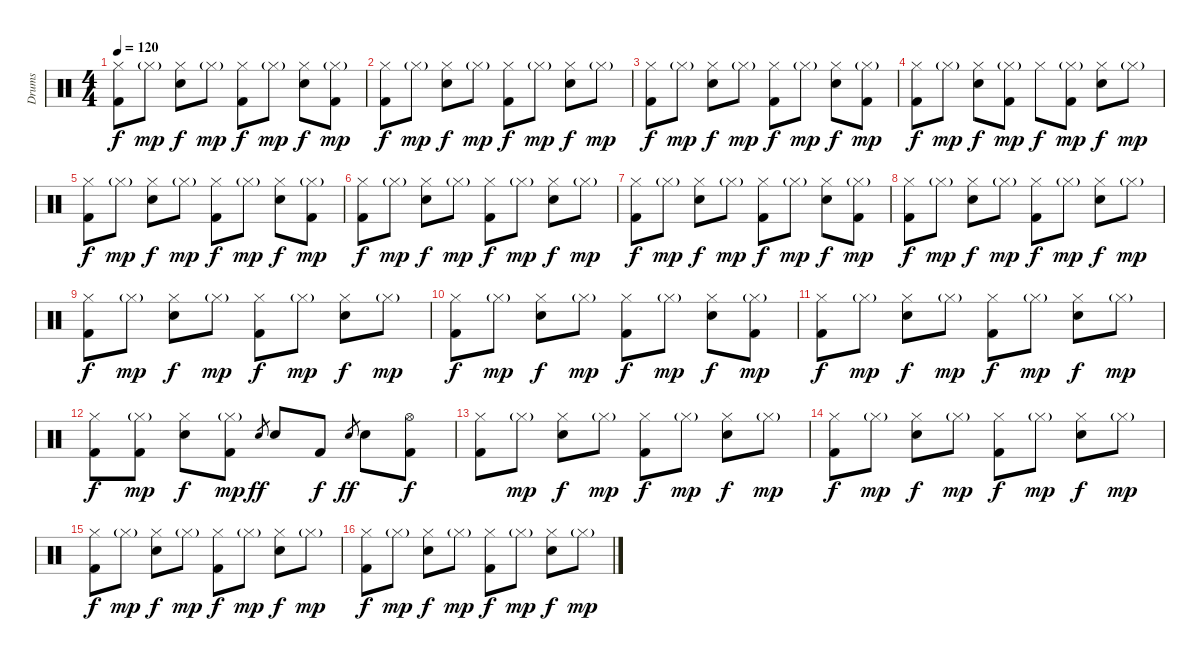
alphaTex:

\track ("Drums" "Drums") {instrument percussion}
\staff {score}
\articulation defaults
\ts (4 4)
\tempo 120
\clef neutral
\ks c
("Hi-Hat (closed)" "Kick (hit) 2").8{dy f} "Hi-Hat (closed)"{g}.8{dy mp} ("Hi-Hat (closed)" "Electric Snare (hit)").8{dy f} "Hi-Hat (closed)"{g}.8{dy mp} ("Hi-Hat (closed)" "Kick (hit) 2").8{dy f} "Hi-Hat (closed)"{g}.8{dy mp} ("Hi-Hat (closed)" "Electric Snare (hit)").8{dy f} ("Hi-Hat (closed)"{g} "Kick (hit) 2").8{dy mp} |
("Hi-Hat (closed)" "Kick (hit) 2").8{dy f} "Hi-Hat (closed)"{g}.8{dy mp} ("Hi-Hat (closed)" "Electric Snare (hit)").8{dy f} "Hi-Hat (closed)"{g}.8{dy mp} ("Hi-Hat (closed)" "Kick (hit) 2").8{dy f} "Hi-Hat (closed)"{g}.8{dy mp} ("Hi-Hat (closed)" "Electric Snare (hit)").8{dy f} "Hi-Hat (closed)"{g}.8{dy mp} |
("Hi-Hat (closed)" "Kick (hit) 2").8{dy f} "Hi-Hat (closed)"{g}.8{dy mp} ("Hi-Hat (closed)" "Electric Snare (hit)").8{dy f} "Hi-Hat (closed)"{g}.8{dy mp} ("Hi-Hat (closed)" "Kick (hit) 2").8{dy f} "Hi-Hat (closed)"{g}.8{dy mp} ("Hi-Hat (closed)" "Electric Snare (hit)").8{dy f} ("Hi-Hat (closed)"{g} "Kick (hit) 2").8{dy mp} |
("Hi-Hat (closed)" "Kick (hit) 2").8{dy f} "Hi-Hat (closed)"{g}.8{dy mp} ("Hi-Hat (closed)" "Electric Snare (hit)").8{dy f} ("Hi-Hat (closed)"{g} "Kick (hit) 2").8{dy mp} "Hi-Hat (closed)".8{dy f} ("Hi-Hat (closed)"{g} "Kick (hit) 2").8{dy mp} ("Hi-Hat (closed)" "Electric Snare (hit)").8{dy f} "Hi-Hat (closed)"{g}.8{dy mp} |
("Hi-Hat (closed)" "Kick (hit) 2").8{dy f} "Hi-Hat (closed)"{g}.8{dy mp} ("Hi-Hat (closed)" "Electric Snare (hit)").8{dy f} "Hi-Hat (closed)"{g}.8{dy mp} ("Hi-Hat (closed)" "Kick (hit) 2").8{dy f} "Hi-Hat (closed)"{g}.8{dy mp} ("Hi-Hat (closed)" "Electric Snare (hit)").8{dy f} ("Hi-Hat (closed)"{g} "Kick (hit) 2").8{dy mp} |
("Hi-Hat (closed)" "Kick (hit) 2").8{dy f} "Hi-Hat (closed)"{g}.8{dy mp} ("Hi-Hat (closed)" "Electric Snare (hit)").8{dy f} "Hi-Hat (closed)"{g}.8{dy mp} ("Hi-Hat (closed)" "Kick (hit) 2").8{dy f} "Hi-Hat (closed)"{g}.8{dy mp} ("Hi-Hat (closed)" "Electric Snare (hit)").8{dy f} "Hi-Hat (closed)"{g}.8{dy mp} |
("Hi-Hat (closed)" "Kick (hit) 2").8{dy f} "Hi-Hat (closed)"{g}.8{dy mp} ("Hi-Hat (closed)" "Electric Snare (hit)").8{dy f} "Hi-Hat (closed)"{g}.8{dy mp} ("Hi-Hat (closed)" "Kick (hit) 2").8{dy f} "Hi-Hat (closed)"{g}.8{dy mp} ("Hi-Hat (closed)" "Electric Snare (hit)").8{dy f} ("Hi-Hat (closed)"{g} "Kick (hit) 2").8{dy mp} |
("Hi-Hat (closed)" "Kick (hit) 2").8{dy f} "Hi-Hat (closed)"{g}.8{dy mp} ("Hi-Hat (closed)" "Electric Snare (hit)").8{dy f} "Hi-Hat (closed)"{g}.8{dy mp} ("Hi-Hat (closed)" "Kick (hit) 2").8{dy f} "Hi-Hat (closed)"{g}.8{dy mp} ("Hi-Hat (closed)" "Electric Snare (hit)").8{dy f} "Hi-Hat (closed)"{g}.8{dy mp} |
("Hi-Hat (closed)" "Kick (hit) 2").8{dy f} "Hi-Hat (closed)"{g}.8{dy mp} ("Hi-Hat (closed)" "Electric Snare (hit)").8{dy f} "Hi-Hat (closed)"{g}.8{dy mp} ("Hi-Hat (closed)" "Kick (hit) 2").8{dy f} "Hi-Hat (closed)"{g}.8{dy mp} ("Hi-Hat (closed)" "Electric Snare (hit)").8{dy f} "Hi-Hat (closed)"{g}.8{dy mp} |
("Hi-Hat (closed)" "Kick (hit) 2").8{dy f} "Hi-Hat (closed)"{g}.8{dy mp} ("Hi-Hat (closed)" "Electric Snare (hit)").8{dy f} "Hi-Hat (closed)"{g}.8{dy mp} ("Hi-Hat (closed)" "Kick (hit) 2").8{dy f} "Hi-Hat (closed)"{g}.8{dy mp} ("Hi-Hat (closed)" "Electric Snare (hit)").8{dy f} ("Hi-Hat (closed)"{g} "Kick (hit) 2").8{dy mp} |
("Hi-Hat (closed)" "Kick (hit) 2").8{dy f} "Hi-Hat (closed)"{g}.8{dy mp} ("Hi-Hat (closed)" "Electric Snare (hit)").8{dy f} "Hi-Hat (closed)"{g}.8{dy mp} ("Hi-Hat (closed)" "Kick (hit) 2").8{dy f} "Hi-Hat (closed)"{g}.8{dy mp} ("Hi-Hat (closed)" "Electric Snare (hit)").8{dy f} "Hi-Hat (closed)"{g}.8{dy mp} |
("Hi-Hat (closed)" "Kick (hit) 2").8{dy f} ("Hi-Hat (closed)"{g} "Kick (hit) 2").8{dy mp} ("Hi-Hat (closed)" "Electric Snare (hit)").8{dy f} ("Hi-Hat (closed)"{g} "Kick (hit) 2").8{dy mp} "Electric Snare (hit)".8{gr dy ff} "Electric Snare (hit)".8 "Kick (hit) 2".8{dy f} "Electric Snare (hit)".8{gr dy ff} "Electric Snare (hit)".8 ("Hi-Hat (open)" "Kick (hit) 2").8{dy f} |
("Hi-Hat (closed)" "Kick (hit) 2").8 "Hi-Hat (closed)"{g}.8{dy mp} ("Hi-Hat (closed)" "Electric Snare (hit)").8{dy f} "Hi-Hat (closed)"{g}.8{dy mp} ("Hi-Hat (closed)" "Kick (hit) 2").8{dy f} "Hi-Hat (closed)"{g}.8{dy mp} ("Hi-Hat (closed)" "Electric Snare (hit)").8{dy f} "Hi-Hat (closed)"{g}.8{dy mp} |
("Hi-Hat (closed)" "Kick (hit) 2").8{dy f} "Hi-Hat (closed)"{g}.8{dy mp} ("Hi-Hat (closed)" "Electric Snare (hit)").8{dy f} "Hi-Hat (closed)"{g}.8{dy mp} ("Hi-Hat (closed)" "Kick (hit) 2").8{dy f} "Hi-Hat (closed)"{g}.8{dy mp} ("Hi-Hat (closed)" "Electric Snare (hit)").8{dy f} "Hi-Hat (closed)"{g}.8{dy mp} |
("Hi-Hat (closed)" "Kick (hit) 2").8{dy f} "Hi-Hat (closed)"{g}.8{dy mp} ("Hi-Hat (closed)" "Electric Snare (hit)").8{dy f} "Hi-Hat (closed)"{g}.8{dy mp} ("Hi-Hat (closed)" "Kick (hit) 2").8{dy f} "Hi-Hat (closed)"{g}.8{dy mp} ("Hi-Hat (closed)" "Electric Snare (hit)").8{dy f} "Hi-Hat (closed)"{g}.8{dy mp} |
("Hi-Hat (closed)" "Kick (hit) 2").8{dy f} "Hi-Hat (closed)"{g}.8{dy mp} ("Hi-Hat (closed)" "Electric Snare (hit)").8{dy f} "Hi-Hat (closed)"{g}.8{dy mp} ("Hi-Hat (closed)" "Kick (hit) 2").8{dy f} "Hi-Hat (closed)"{g}.8{dy mp} ("Hi-Hat (closed)" "Electric Snare (hit)").8{dy f} "Hi-Hat (closed)"{g}.8{dy mp}
